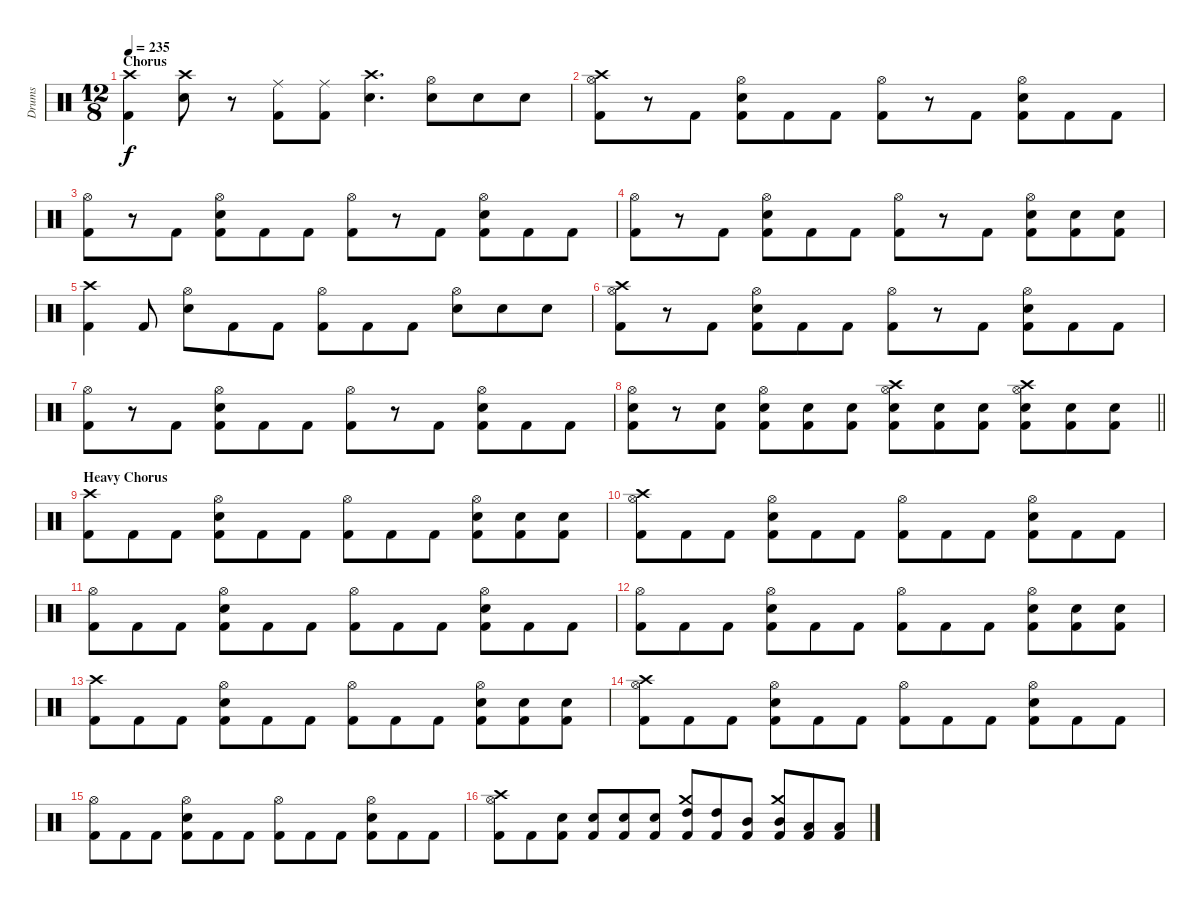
\track ("Drums" "Drums") {instrument percussion}
\staff {score}
\articulation defaults
\ts (12 8)
\section ("" "Chorus")
\tempo 235
\clef neutral
\ks c
("Crash high (hit)" "Kick (hit) 2").4{dy f} ("Crash high (hit)" "Snare (hit) 2").8 r.8 ("Ride (middle)" "Kick (hit) 2").8 ("Ride (middle)" "Kick (hit) 2").8 ("Crash high (hit)" "Snare (hit) 2").4{d} ("Hi-Hat (open)" "Snare (hit) 2").8 "Snare (hit) 2".8 "Snare (hit) 2".8 |
("Crash high (hit)" "Hi-Hat (open)" "Kick (hit) 2").8 r.8 "Kick (hit) 2".8 ("Hi-Hat (open)" "Snare (hit) 2" "Kick (hit) 2").8 "Kick (hit) 2".8 "Kick (hit) 2".8 ("Hi-Hat (open)" "Kick (hit) 2").8 r.8 "Kick (hit) 2".8 ("Hi-Hat (open)" "Snare (hit) 2" "Kick (hit) 2").8 "Kick (hit) 2".8 "Kick (hit) 2".8 |
("Hi-Hat (open)" "Kick (hit) 2").8 r.8 "Kick (hit) 2".8 ("Hi-Hat (open)" "Snare (hit) 2" "Kick (hit) 2").8 "Kick (hit) 2".8 "Kick (hit) 2".8 ("Hi-Hat (open)" "Kick (hit) 2").8 r.8 "Kick (hit) 2".8 ("Hi-Hat (open)" "Snare (hit) 2" "Kick (hit) 2").8 "Kick (hit) 2".8 "Kick (hit) 2".8 |
("Hi-Hat (open)" "Kick (hit) 2").8 r.8 "Kick (hit) 2".8 ("Hi-Hat (open)" "Snare (hit) 2" "Kick (hit) 2").8 "Kick (hit) 2".8 "Kick (hit) 2".8 ("Hi-Hat (open)" "Kick (hit) 2").8 r.8 "Kick (hit) 2".8 ("Hi-Hat (open)" "Snare (hit) 2" "Kick (hit) 2").8 ("Snare (hit) 2" "Kick (hit) 2").8 ("Snare (hit) 2" "Kick (hit) 2").8 |
("Crash high (hit)" "Kick (hit) 2").4 "Kick (hit) 2".8 ("Hi-Hat (open)" "Snare (hit) 2").8 "Kick (hit) 2".8 "Kick (hit) 2".8 ("Hi-Hat (open)" "Kick (hit) 2").8 "Kick (hit) 2".8 "Kick (hit) 2".8 ("Hi-Hat (open)" "Snare (hit) 2").8 "Snare (hit) 2".8 "Snare (hit) 2".8 |
("Crash high (hit)" "Hi-Hat (open)" "Kick (hit) 2").8 r.8 "Kick (hit) 2".8 ("Hi-Hat (open)" "Snare (hit) 2" "Kick (hit) 2").8 "Kick (hit) 2".8 "Kick (hit) 2".8 ("Hi-Hat (open)" "Kick (hit) 2").8 r.8 "Kick (hit) 2".8 ("Hi-Hat (open)" "Snare (hit) 2" "Kick (hit) 2").8 "Kick (hit) 2".8 "Kick (hit) 2".8 |
("Hi-Hat (open)" "Kick (hit) 2").8 r.8 "Kick (hit) 2".8 ("Hi-Hat (open)" "Snare (hit) 2" "Kick (hit) 2").8 "Kick (hit) 2".8 "Kick (hit) 2".8 ("Hi-Hat (open)" "Kick (hit) 2").8 r.8 "Kick (hit) 2".8 ("Hi-Hat (open)" "Snare (hit) 2" "Kick (hit) 2").8 "Kick (hit) 2".8 "Kick (hit) 2".8 |
\barLineRight lightlight
("Hi-Hat (open)" "Snare (hit) 2" "Kick (hit) 2").8 r.8 ("Snare (hit) 2" "Kick (hit) 2").8 ("Hi-Hat (open)" "Snare (hit) 2" "Kick (hit) 2").8 ("Snare (hit) 2" "Kick (hit) 2").8 ("Snare (hit) 2" "Kick (hit) 2").8 ("Crash high (hit)" "Hi-Hat (open)" "Snare (hit) 2" "Kick (hit) 2").8 ("Snare (hit) 2" "Kick (hit) 2").8 ("Snare (hit) 2" "Kick (hit) 2").8 ("Crash high (hit)" "Hi-Hat (open)" "Snare (hit) 2" "Kick (hit) 2").8 ("Snare (hit) 2" "Kick (hit) 2").8 ("Snare (hit) 2" "Kick (hit) 2").8 |
\section ("" "Heavy Chorus")
("Crash high (hit)" "Kick (hit) 2").8 "Kick (hit) 2".8 "Kick (hit) 2".8 ("Hi-Hat (open)" "Snare (hit) 2" "Kick (hit) 2").8 "Kick (hit) 2".8 "Kick (hit) 2".8 ("Hi-Hat (open)" "Kick (hit) 2").8 "Kick (hit) 2".8 "Kick (hit) 2".8 ("Hi-Hat (open)" "Snare (hit) 2" "Kick (hit) 2").8 ("Snare (hit) 2" "Kick (hit) 2").8 ("Snare (hit) 2" "Kick (hit) 2").8 |
("Crash high (hit)" "Hi-Hat (open)" "Kick (hit) 2").8 "Kick (hit) 2".8 "Kick (hit) 2".8 ("Hi-Hat (open)" "Snare (hit) 2" "Kick (hit) 2").8 "Kick (hit) 2".8 "Kick (hit) 2".8 ("Hi-Hat (open)" "Kick (hit) 2").8 "Kick (hit) 2".8 "Kick (hit) 2".8 ("Hi-Hat (open)" "Snare (hit) 2" "Kick (hit) 2").8 "Kick (hit) 2".8 "Kick (hit) 2".8 |
("Hi-Hat (open)" "Kick (hit) 2").8 "Kick (hit) 2".8 "Kick (hit) 2".8 ("Hi-Hat (open)" "Snare (hit) 2" "Kick (hit) 2").8 "Kick (hit) 2".8 "Kick (hit) 2".8 ("Hi-Hat (open)" "Kick (hit) 2").8 "Kick (hit) 2".8 "Kick (hit) 2".8 ("Hi-Hat (open)" "Snare (hit) 2" "Kick (hit) 2").8 "Kick (hit) 2".8 "Kick (hit) 2".8 |
("Hi-Hat (open)" "Kick (hit) 2").8 "Kick (hit) 2".8 "Kick (hit) 2".8 ("Hi-Hat (open)" "Snare (hit) 2" "Kick (hit) 2").8 "Kick (hit) 2".8 "Kick (hit) 2".8 ("Hi-Hat (open)" "Kick (hit) 2").8 "Kick (hit) 2".8 "Kick (hit) 2".8 ("Hi-Hat (open)" "Snare (hit) 2" "Kick (hit) 2").8 ("Snare (hit) 2" "Kick (hit) 2").8 ("Snare (hit) 2" "Kick (hit) 2").8 |
("Crash high (hit)" "Kick (hit) 2").8 "Kick (hit) 2".8 "Kick (hit) 2".8 ("Hi-Hat (open)" "Snare (hit) 2" "Kick (hit) 2").8 "Kick (hit) 2".8 "Kick (hit) 2".8 ("Hi-Hat (open)" "Kick (hit) 2").8 "Kick (hit) 2".8 "Kick (hit) 2".8 ("Hi-Hat (open)" "Snare (hit) 2" "Kick (hit) 2").8 ("Snare (hit) 2" "Kick (hit) 2").8 ("Snare (hit) 2" "Kick (hit) 2").8 |
("Crash high (hit)" "Hi-Hat (open)" "Kick (hit) 2").8 "Kick (hit) 2".8 "Kick (hit) 2".8 ("Hi-Hat (open)" "Snare (hit) 2" "Kick (hit) 2").8 "Kick (hit) 2".8 "Kick (hit) 2".8 ("Hi-Hat (open)" "Kick (hit) 2").8 "Kick (hit) 2".8 "Kick (hit) 2".8 ("Hi-Hat (open)" "Snare (hit) 2" "Kick (hit) 2").8 "Kick (hit) 2".8 "Kick (hit) 2".8 |
("Hi-Hat (open)" "Kick (hit) 2").8 "Kick (hit) 2".8 "Kick (hit) 2".8 ("Hi-Hat (open)" "Snare (hit) 2" "Kick (hit) 2").8 "Kick (hit) 2".8 "Kick (hit) 2".8 ("Hi-Hat (open)" "Kick (hit) 2").8 "Kick (hit) 2".8 "Kick (hit) 2".8 ("Hi-Hat (open)" "Snare (hit) 2" "Kick (hit) 2").8 "Kick (hit) 2".8 "Kick (hit) 2".8 |
("Crash high (hit)" "Hi-Hat (open)" "Kick (hit) 2").8 "Kick (hit) 2".8 ("Snare (hit) 2" "Kick (hit) 2").8 ("Snare (hit) 2" "Kick (hit) 2").8 ("Snare (hit) 2" "Kick (hit) 2").8 ("Snare (hit) 2" "Kick (hit) 2").8 ("Crash medium (hit)" "High Tom (hit)" "Kick (hit) 2").8 ("High Tom (hit)" "Kick (hit) 2").8 ("Mid Tom (hit)" "Kick (hit) 2").8 ("Crash medium (hit)" "Mid Tom (hit)" "Kick (hit) 2").8 ("Low Tom (hit)" "Kick (hit) 2").8 ("Low Tom (hit)" "Kick (hit) 2").8
